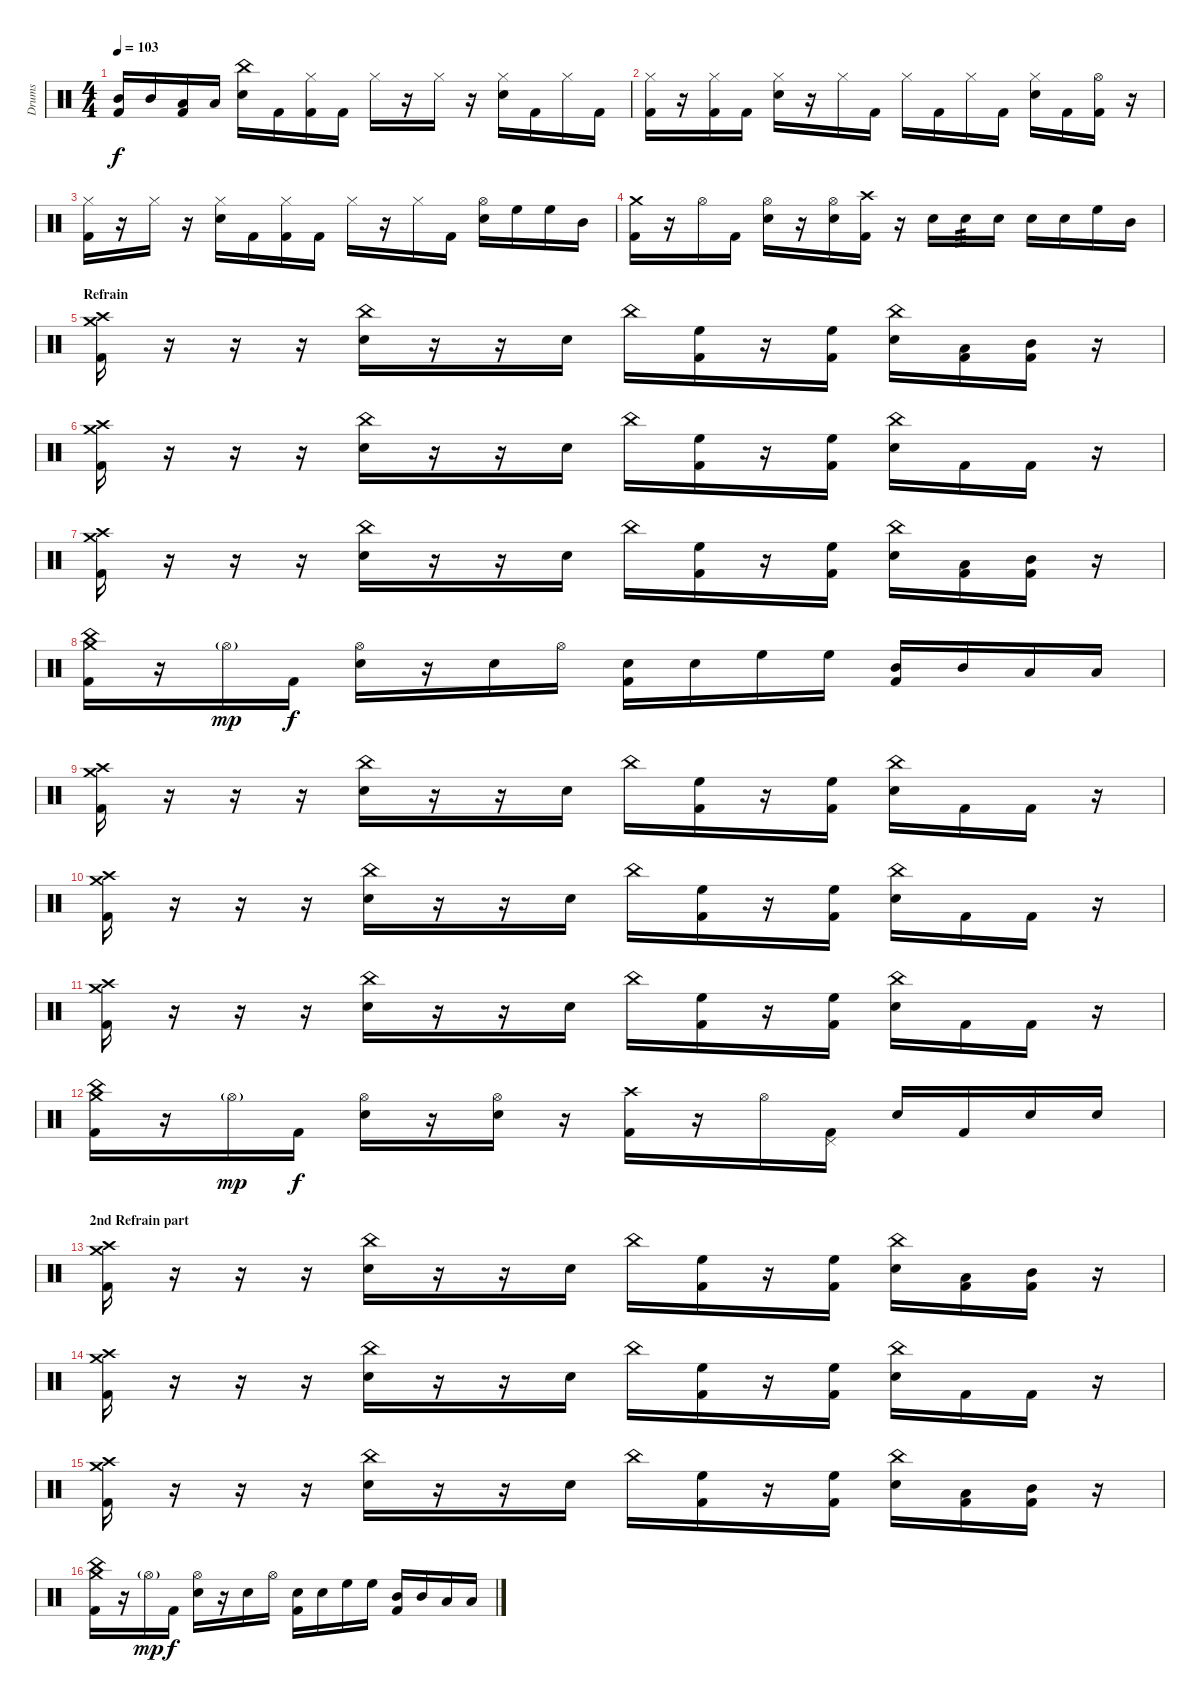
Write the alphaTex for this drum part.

\track ("Drums" "Drums") {instrument percussion}
\staff {score}
\articulation defaults
\ts (4 4)
\tempo 103
\clef neutral
\ks c
("Mid Tom (hit)" "Kick (hit) 2").16{dy f} "Mid Tom (hit)".16 ("Low Tom (hit)" "Kick (hit) 2").16 "Low Tom (hit)".16 ("China (hit)" "Snare (hit) 2").16 "Kick (hit) 2".16 ("Hi-Hat (closed)" "Kick (hit) 2").16 "Kick (hit) 2".16 "Hi-Hat (closed)".16 r.16 "Hi-Hat (closed)".16 r.16 ("Hi-Hat (closed)" "Snare (hit) 2").16 "Kick (hit) 2".16 "Hi-Hat (closed)".16 "Kick (hit) 2".16 |
("Hi-Hat (closed)" "Kick (hit) 2").16 r.16 ("Hi-Hat (closed)" "Kick (hit) 2").16 "Kick (hit) 2".16 ("Hi-Hat (closed)" "Snare (hit) 2").16 r.16 "Hi-Hat (closed)".16 "Kick (hit) 2".16 "Hi-Hat (closed)".16 "Kick (hit) 2".16 "Hi-Hat (closed)".16 "Kick (hit) 2".16 ("Hi-Hat (closed)" "Snare (hit) 2").16 "Kick (hit) 2".16 ("Hi-Hat (open)" "Kick (hit) 2").16 r.16 |
("Hi-Hat (closed)" "Kick (hit) 2").16 r.16 "Hi-Hat (closed)".16 r.16 ("Hi-Hat (closed)" "Snare (hit) 2").16 "Kick (hit) 2".16 ("Hi-Hat (closed)" "Kick (hit) 2").16 "Kick (hit) 2".16 "Hi-Hat (closed)".16 r.16 "Hi-Hat (closed)".16 "Kick (hit) 2".16 ("Hi-Hat (open)" "Snare (hit) 2").16 "High Floor Tom (hit)".16 "High Floor Tom (hit)".16 "Mid Tom (hit)".16 |
("Crash medium (hit)" "Kick (hit) 2").16 r.16 "Hi-Hat (open)".16 "Kick (hit) 2".16 ("Hi-Hat (open)" "Snare (hit) 2").16 r.16 ("Hi-Hat (open)" "Snare (hit) 2").16 ("Crash high (hit)" "Kick (hit) 2").16 r.16 "Snare (hit) 2".16 "Snare (hit) 2".16{tp 3} "Snare (hit) 2".16 "Snare (hit) 2".16 "Snare (hit) 2".16 "High Floor Tom (hit)".16 "Mid Tom (hit)".16 |
\section ("" "Refrain")
("Crash medium (hit)" "Crash high (hit)" "Kick (hit) 2").16 r.16 r.16 r.16 ("China (hit)" "Snare (hit) 2").16 r.16 r.16 "Snare (hit) 2".16 "China (hit)".16 ("High Floor Tom (hit)" "Kick (hit) 2").16 r.16 ("High Floor Tom (hit)" "Kick (hit) 2").16 ("China (hit)" "Snare (hit) 2").16 ("Low Tom (hit)" "Kick (hit) 2").16 ("Mid Tom (hit)" "Kick (hit) 2").16 r.16 |
("Crash medium (hit)" "Crash high (hit)" "Kick (hit) 2").16 r.16 r.16 r.16 ("China (hit)" "Snare (hit) 2").16 r.16 r.16 "Snare (hit) 2".16 "China (hit)".16 ("High Floor Tom (hit)" "Kick (hit) 2").16 r.16 ("High Floor Tom (hit)" "Kick (hit) 2").16 ("China (hit)" "Snare (hit) 2").16 "Kick (hit) 2".16 "Kick (hit) 2".16 r.16 |
("Crash medium (hit)" "Crash high (hit)" "Kick (hit) 2").16 r.16 r.16 r.16 ("China (hit)" "Snare (hit) 2").16 r.16 r.16 "Snare (hit) 2".16 "China (hit)".16 ("High Floor Tom (hit)" "Kick (hit) 2").16 r.16 ("High Floor Tom (hit)" "Kick (hit) 2").16 ("China (hit)" "Snare (hit) 2").16 ("Low Tom (hit)" "Kick (hit) 2").16 ("Mid Tom (hit)" "Kick (hit) 2").16 r.16 |
("Crash medium (hit)" "China (hit)" "Kick (hit) 2").16 r.16 "Hi-Hat (open)"{g}.16{dy mp} "Kick (hit) 2".16{dy f} ("Hi-Hat (open)" "Snare (hit) 2").16 r.16 "Snare (hit) 2".16 "Hi-Hat (open)".16 ("Snare (hit) 2" "Kick (hit) 2").16 "Snare (hit) 2".16 "High Floor Tom (hit)".16 "High Floor Tom (hit)".16 ("Mid Tom (hit)" "Kick (hit) 2").16 "Mid Tom (hit)".16 "Low Tom (hit)".16 "Low Tom (hit)".16 |
("Crash medium (hit)" "Crash high (hit)" "Kick (hit) 2").16 r.16 r.16 r.16 ("China (hit)" "Snare (hit) 2").16 r.16 r.16 "Snare (hit) 2".16 "China (hit)".16 ("High Floor Tom (hit)" "Kick (hit) 2").16 r.16 ("High Floor Tom (hit)" "Kick (hit) 2").16 ("China (hit)" "Snare (hit) 2").16 "Kick (hit) 2".16 "Kick (hit) 2".16 r.16 |
("Crash medium (hit)" "Crash high (hit)" "Kick (hit) 2").16 r.16 r.16 r.16 ("China (hit)" "Snare (hit) 2").16 r.16 r.16 "Snare (hit) 2".16 "China (hit)".16 ("High Floor Tom (hit)" "Kick (hit) 2").16 r.16 ("High Floor Tom (hit)" "Kick (hit) 2").16 ("China (hit)" "Snare (hit) 2").16 "Kick (hit) 2".16 "Kick (hit) 2".16 r.16 |
("Crash medium (hit)" "Crash high (hit)" "Kick (hit) 2").16 r.16 r.16 r.16 ("China (hit)" "Snare (hit) 2").16 r.16 r.16 "Snare (hit) 2".16 "China (hit)".16 ("High Floor Tom (hit)" "Kick (hit) 2").16 r.16 ("High Floor Tom (hit)" "Kick (hit) 2").16 ("China (hit)" "Snare (hit) 2").16 "Kick (hit) 2".16 "Kick (hit) 2".16 r.16 |
("Crash medium (hit)" "China (hit)" "Kick (hit) 2").16 r.16 "Hi-Hat (open)"{g}.16{dy mp} "Kick (hit) 2".16{dy f} ("Hi-Hat (open)" "Snare (hit) 2").16 r.16 ("Hi-Hat (open)" "Snare (hit) 2").16 r.16 ("Crash high (hit)" "Kick (hit) 2").16 r.16 "Hi-Hat (open)".16 ("Pedal Hi-Hat (hit)" "Kick (hit) 2").16 "Snare (hit) 2".16 "Kick (hit) 2".16 "Snare (hit) 2".16 "Snare (hit) 2".16 |
\section ("" "2nd Refrain part")
("Crash medium (hit)" "Crash high (hit)" "Kick (hit) 2").16 r.16 r.16 r.16 ("China (hit)" "Snare (hit) 2").16 r.16 r.16 "Snare (hit) 2".16 "China (hit)".16 ("High Floor Tom (hit)" "Kick (hit) 2").16 r.16 ("High Floor Tom (hit)" "Kick (hit) 2").16 ("China (hit)" "Snare (hit) 2").16 ("Low Tom (hit)" "Kick (hit) 2").16 ("Mid Tom (hit)" "Kick (hit) 2").16 r.16 |
("Crash medium (hit)" "Crash high (hit)" "Kick (hit) 2").16 r.16 r.16 r.16 ("China (hit)" "Snare (hit) 2").16 r.16 r.16 "Snare (hit) 2".16 "China (hit)".16 ("High Floor Tom (hit)" "Kick (hit) 2").16 r.16 ("High Floor Tom (hit)" "Kick (hit) 2").16 ("China (hit)" "Snare (hit) 2").16 "Kick (hit) 2".16 "Kick (hit) 2".16 r.16 |
("Crash medium (hit)" "Crash high (hit)" "Kick (hit) 2").16 r.16 r.16 r.16 ("China (hit)" "Snare (hit) 2").16 r.16 r.16 "Snare (hit) 2".16 "China (hit)".16 ("High Floor Tom (hit)" "Kick (hit) 2").16 r.16 ("High Floor Tom (hit)" "Kick (hit) 2").16 ("China (hit)" "Snare (hit) 2").16 ("Low Tom (hit)" "Kick (hit) 2").16 ("Mid Tom (hit)" "Kick (hit) 2").16 r.16 |
("Crash medium (hit)" "China (hit)" "Kick (hit) 2").16 r.16 "Hi-Hat (open)"{g}.16{dy mp} "Kick (hit) 2".16{dy f} ("Hi-Hat (open)" "Snare (hit) 2").16 r.16 "Snare (hit) 2".16 "Hi-Hat (open)".16 ("Snare (hit) 2" "Kick (hit) 2").16 "Snare (hit) 2".16 "High Floor Tom (hit)".16 "High Floor Tom (hit)".16 ("Mid Tom (hit)" "Kick (hit) 2").16 "Mid Tom (hit)".16 "Low Tom (hit)".16 "Low Tom (hit)".16
